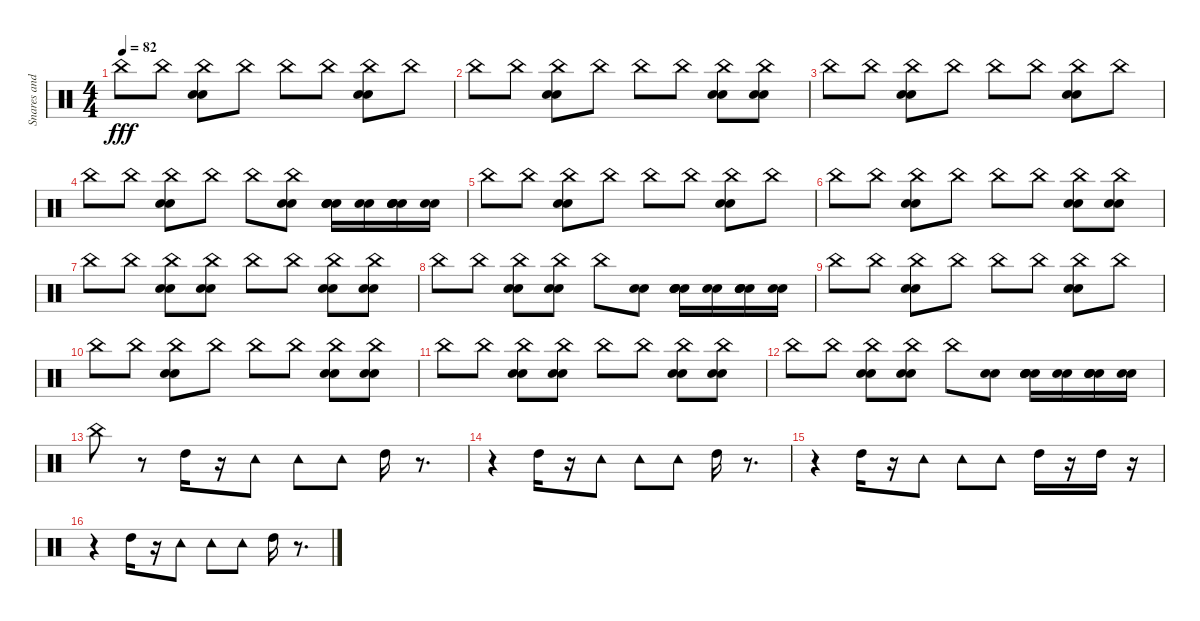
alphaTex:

\track ("Snares and Cymbals" "Snares and") {instrument percussion}
\staff {score}
\articulation defaults
\ts (4 4)
\tempo 82
\clef neutral
\ks c "China (hit)".8{dy fff} "China (hit)".8
("China (hit)" "Snare (hit) 2" "Electric Snare (hit)").8 "China (hit)".8 "China (hit)".8 "China (hit)".8 ("China (hit)" "Snare (hit) 2" "Electric Snare (hit)").8 "China (hit)".8 |
"China (hit)".8 "China (hit)".8 ("China (hit)" "Snare (hit) 2" "Electric Snare (hit)").8 "China (hit)".8 "China (hit)".8 "China (hit)".8 ("China (hit)" "Snare (hit) 2" "Electric Snare (hit)").8 ("Snare (hit) 2" "Electric Snare (hit)" "China (hit)").8 |
"China (hit)".8 "China (hit)".8 ("China (hit)" "Snare (hit) 2" "Electric Snare (hit)").8 "China (hit)".8 "China (hit)".8 "China (hit)".8 ("China (hit)" "Snare (hit) 2" "Electric Snare (hit)").8 "China (hit)".8 |
"China (hit)".8 "China (hit)".8 ("China (hit)" "Snare (hit) 2" "Electric Snare (hit)").8 "China (hit)".8 "China (hit)".8 ("Snare (hit) 2" "Electric Snare (hit)" "China (hit)").8 ("Snare (hit) 2" "Electric Snare (hit)" "Electric Snare (hit)" "Snare (hit) 2").16 ("Electric Snare (hit)" "Snare (hit) 2").16 ("Snare (hit) 2" "Electric Snare (hit)" "Electric Snare (hit)" "Snare (hit) 2").16 ("Electric Snare (hit)" "Snare (hit) 2").16 |
"China (hit)".8 "China (hit)".8 ("China (hit)" "Snare (hit) 2" "Electric Snare (hit)").8 "China (hit)".8 "China (hit)".8 "China (hit)".8 ("China (hit)" "Snare (hit) 2" "Electric Snare (hit)").8 "China (hit)".8 |
"China (hit)".8 "China (hit)".8 ("China (hit)" "Snare (hit) 2" "Electric Snare (hit)").8 "China (hit)".8 "China (hit)".8 "China (hit)".8 ("China (hit)" "Snare (hit) 2" "Electric Snare (hit)").8 ("Snare (hit) 2" "Electric Snare (hit)" "China (hit)").8 |
"China (hit)".8 "China (hit)".8 ("China (hit)" "Snare (hit) 2" "Electric Snare (hit)").8 ("Snare (hit) 2" "Electric Snare (hit)" "China (hit)").8 "China (hit)".8 "China (hit)".8 ("China (hit)" "Snare (hit) 2" "Electric Snare (hit)").8 ("Snare (hit) 2" "Electric Snare (hit)" "China (hit)").8 |
"China (hit)".8 "China (hit)".8 ("China (hit)" "Snare (hit) 2" "Electric Snare (hit)").8 ("Snare (hit) 2" "Electric Snare (hit)" "China (hit)").8 "China (hit)".8 ("Snare (hit) 2" "Electric Snare (hit)").8 ("Snare (hit) 2" "Electric Snare (hit)" "Electric Snare (hit)" "Snare (hit) 2").16 ("Electric Snare (hit)" "Snare (hit) 2").16 ("Snare (hit) 2" "Electric Snare (hit)" "Electric Snare (hit)" "Snare (hit) 2").16 ("Electric Snare (hit)" "Snare (hit) 2").16 |
"China (hit)".8 "China (hit)".8 ("China (hit)" "Snare (hit) 2" "Electric Snare (hit)").8 "China (hit)".8 "China (hit)".8 "China (hit)".8 ("China (hit)" "Snare (hit) 2" "Electric Snare (hit)").8 "China (hit)".8 |
"China (hit)".8 "China (hit)".8 ("China (hit)" "Snare (hit) 2" "Electric Snare (hit)").8 "China (hit)".8 "China (hit)".8 "China (hit)".8 ("China (hit)" "Snare (hit) 2" "Electric Snare (hit)").8 ("Snare (hit) 2" "Electric Snare (hit)" "China (hit)").8 |
"China (hit)".8 "China (hit)".8 ("China (hit)" "Snare (hit) 2" "Electric Snare (hit)").8 ("Snare (hit) 2" "Electric Snare (hit)" "China (hit)").8 "China (hit)".8 "China (hit)".8 ("China (hit)" "Snare (hit) 2" "Electric Snare (hit)").8 ("Snare (hit) 2" "Electric Snare (hit)" "China (hit)").8 |
"China (hit)".8 "China (hit)".8 ("China (hit)" "Snare (hit) 2" "Electric Snare (hit)").8 ("Snare (hit) 2" "Electric Snare (hit)" "China (hit)").8 "China (hit)".8 ("Snare (hit) 2" "Electric Snare (hit)").8 ("Snare (hit) 2" "Electric Snare (hit)" "Electric Snare (hit)" "Snare (hit) 2").16 ("Electric Snare (hit)" "Snare (hit) 2").16 ("Snare (hit) 2" "Electric Snare (hit)" "Electric Snare (hit)" "Snare (hit) 2").16 ("Electric Snare (hit)" "Snare (hit) 2").16 |
"China (hit)".8 r.8 "High Tom (hit)".16 r.16 "Tambourine (hit)".8 "Tambourine (hit)".8 "Tambourine (hit)".8 "High Tom (hit)".16 r.8{d} |
r.4 "High Tom (hit)".16 r.16 "Tambourine (hit)".8 "Tambourine (hit)".8 "Tambourine (hit)".8 "High Tom (hit)".16 r.8{d} |
r.4 "High Tom (hit)".16 r.16 "Tambourine (hit)".8 "Tambourine (hit)".8 "Tambourine (hit)".8 "High Tom (hit)".16 r.16 "High Tom (hit)".16 r.16 |
r.4 "High Tom (hit)".16 r.16 "Tambourine (hit)".8 "Tambourine (hit)".8 "Tambourine (hit)".8 "High Tom (hit)".16 r.8{d}
